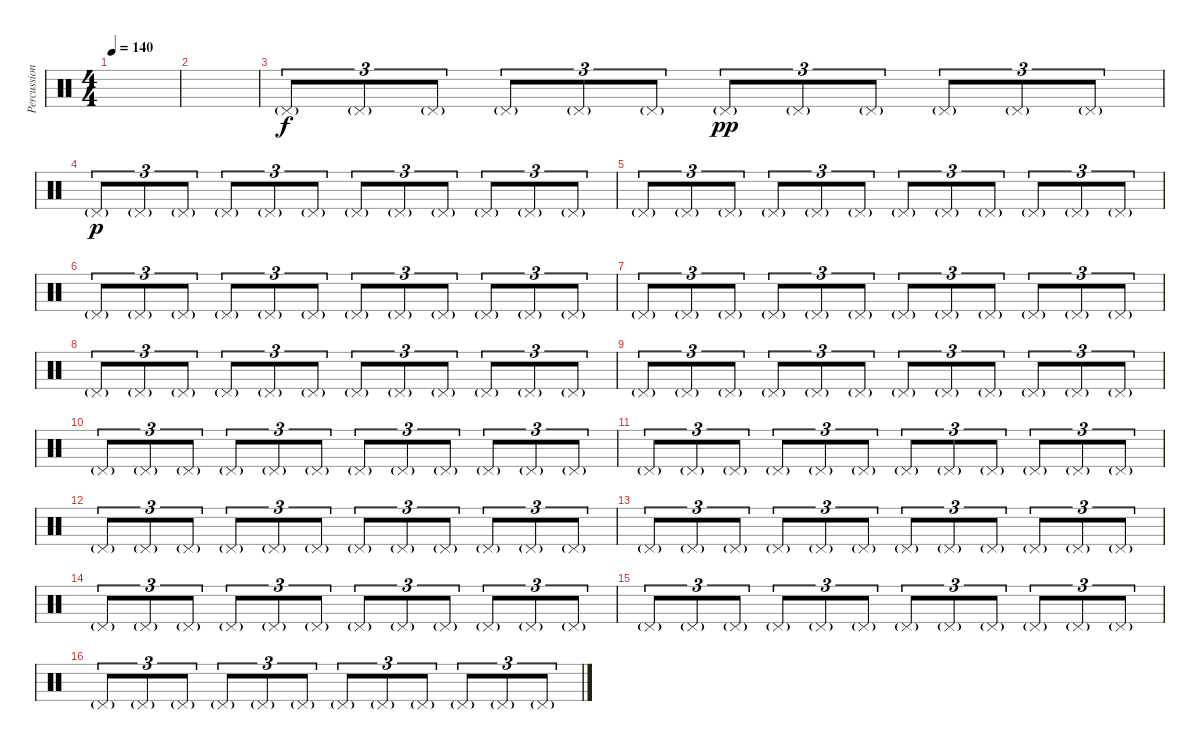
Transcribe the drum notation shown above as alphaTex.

\track ("Percussion" "Percussion") {instrument percussion}
\staff {score}
\articulation defaults
\ts (4 4)
\tempo 140
\clef neutral
\ks c
|
|
"Pedal Hi-Hat (hit)"{g}.8{tu (3 2)} "Pedal Hi-Hat (hit)"{g}.8{tu (3 2)} "Pedal Hi-Hat (hit)"{g}.8{tu (3 2)} "Pedal Hi-Hat (hit)"{g}.8{tu (3 2)} "Pedal Hi-Hat (hit)"{g}.8{tu (3 2)} "Pedal Hi-Hat (hit)"{g}.8{tu (3 2)} "Pedal Hi-Hat (hit)"{g}.8{tu (3 2) dy pp} "Pedal Hi-Hat (hit)"{g}.8{tu (3 2)} "Pedal Hi-Hat (hit)"{g}.8{tu (3 2)} "Pedal Hi-Hat (hit)"{g}.8{tu (3 2)} "Pedal Hi-Hat (hit)"{g}.8{tu (3 2)} "Pedal Hi-Hat (hit)"{g}.8{tu (3 2)} |
"Pedal Hi-Hat (hit)"{g}.8{tu (3 2) dy p} "Pedal Hi-Hat (hit)"{g}.8{tu (3 2)} "Pedal Hi-Hat (hit)"{g}.8{tu (3 2)} "Pedal Hi-Hat (hit)"{g}.8{tu (3 2)} "Pedal Hi-Hat (hit)"{g}.8{tu (3 2)} "Pedal Hi-Hat (hit)"{g}.8{tu (3 2)} "Pedal Hi-Hat (hit)"{g}.8{tu (3 2)} "Pedal Hi-Hat (hit)"{g}.8{tu (3 2)} "Pedal Hi-Hat (hit)"{g}.8{tu (3 2)} "Pedal Hi-Hat (hit)"{g}.8{tu (3 2)} "Pedal Hi-Hat (hit)"{g}.8{tu (3 2)} "Pedal Hi-Hat (hit)"{g}.8{tu (3 2)} |
"Pedal Hi-Hat (hit)"{g}.8{tu (3 2)} "Pedal Hi-Hat (hit)"{g}.8{tu (3 2)} "Pedal Hi-Hat (hit)"{g}.8{tu (3 2)} "Pedal Hi-Hat (hit)"{g}.8{tu (3 2)} "Pedal Hi-Hat (hit)"{g}.8{tu (3 2)} "Pedal Hi-Hat (hit)"{g}.8{tu (3 2)} "Pedal Hi-Hat (hit)"{g}.8{tu (3 2)} "Pedal Hi-Hat (hit)"{g}.8{tu (3 2)} "Pedal Hi-Hat (hit)"{g}.8{tu (3 2)} "Pedal Hi-Hat (hit)"{g}.8{tu (3 2)} "Pedal Hi-Hat (hit)"{g}.8{tu (3 2)} "Pedal Hi-Hat (hit)"{g}.8{tu (3 2)} |
"Pedal Hi-Hat (hit)"{g}.8{tu (3 2)} "Pedal Hi-Hat (hit)"{g}.8{tu (3 2)} "Pedal Hi-Hat (hit)"{g}.8{tu (3 2)} "Pedal Hi-Hat (hit)"{g}.8{tu (3 2)} "Pedal Hi-Hat (hit)"{g}.8{tu (3 2)} "Pedal Hi-Hat (hit)"{g}.8{tu (3 2)} "Pedal Hi-Hat (hit)"{g}.8{tu (3 2)} "Pedal Hi-Hat (hit)"{g}.8{tu (3 2)} "Pedal Hi-Hat (hit)"{g}.8{tu (3 2)} "Pedal Hi-Hat (hit)"{g}.8{tu (3 2)} "Pedal Hi-Hat (hit)"{g}.8{tu (3 2)} "Pedal Hi-Hat (hit)"{g}.8{tu (3 2)} |
"Pedal Hi-Hat (hit)"{g}.8{tu (3 2)} "Pedal Hi-Hat (hit)"{g}.8{tu (3 2)} "Pedal Hi-Hat (hit)"{g}.8{tu (3 2)} "Pedal Hi-Hat (hit)"{g}.8{tu (3 2)} "Pedal Hi-Hat (hit)"{g}.8{tu (3 2)} "Pedal Hi-Hat (hit)"{g}.8{tu (3 2)} "Pedal Hi-Hat (hit)"{g}.8{tu (3 2)} "Pedal Hi-Hat (hit)"{g}.8{tu (3 2)} "Pedal Hi-Hat (hit)"{g}.8{tu (3 2)} "Pedal Hi-Hat (hit)"{g}.8{tu (3 2)} "Pedal Hi-Hat (hit)"{g}.8{tu (3 2)} "Pedal Hi-Hat (hit)"{g}.8{tu (3 2)} |
"Pedal Hi-Hat (hit)"{g}.8{tu (3 2)} "Pedal Hi-Hat (hit)"{g}.8{tu (3 2)} "Pedal Hi-Hat (hit)"{g}.8{tu (3 2)} "Pedal Hi-Hat (hit)"{g}.8{tu (3 2)} "Pedal Hi-Hat (hit)"{g}.8{tu (3 2)} "Pedal Hi-Hat (hit)"{g}.8{tu (3 2)} "Pedal Hi-Hat (hit)"{g}.8{tu (3 2)} "Pedal Hi-Hat (hit)"{g}.8{tu (3 2)} "Pedal Hi-Hat (hit)"{g}.8{tu (3 2)} "Pedal Hi-Hat (hit)"{g}.8{tu (3 2)} "Pedal Hi-Hat (hit)"{g}.8{tu (3 2)} "Pedal Hi-Hat (hit)"{g}.8{tu (3 2)} |
"Pedal Hi-Hat (hit)"{g}.8{tu (3 2)} "Pedal Hi-Hat (hit)"{g}.8{tu (3 2)} "Pedal Hi-Hat (hit)"{g}.8{tu (3 2)} "Pedal Hi-Hat (hit)"{g}.8{tu (3 2)} "Pedal Hi-Hat (hit)"{g}.8{tu (3 2)} "Pedal Hi-Hat (hit)"{g}.8{tu (3 2)} "Pedal Hi-Hat (hit)"{g}.8{tu (3 2)} "Pedal Hi-Hat (hit)"{g}.8{tu (3 2)} "Pedal Hi-Hat (hit)"{g}.8{tu (3 2)} "Pedal Hi-Hat (hit)"{g}.8{tu (3 2)} "Pedal Hi-Hat (hit)"{g}.8{tu (3 2)} "Pedal Hi-Hat (hit)"{g}.8{tu (3 2)} |
"Pedal Hi-Hat (hit)"{g}.8{tu (3 2)} "Pedal Hi-Hat (hit)"{g}.8{tu (3 2)} "Pedal Hi-Hat (hit)"{g}.8{tu (3 2)} "Pedal Hi-Hat (hit)"{g}.8{tu (3 2)} "Pedal Hi-Hat (hit)"{g}.8{tu (3 2)} "Pedal Hi-Hat (hit)"{g}.8{tu (3 2)} "Pedal Hi-Hat (hit)"{g}.8{tu (3 2)} "Pedal Hi-Hat (hit)"{g}.8{tu (3 2)} "Pedal Hi-Hat (hit)"{g}.8{tu (3 2)} "Pedal Hi-Hat (hit)"{g}.8{tu (3 2)} "Pedal Hi-Hat (hit)"{g}.8{tu (3 2)} "Pedal Hi-Hat (hit)"{g}.8{tu (3 2)} |
"Pedal Hi-Hat (hit)"{g}.8{tu (3 2)} "Pedal Hi-Hat (hit)"{g}.8{tu (3 2)} "Pedal Hi-Hat (hit)"{g}.8{tu (3 2)} "Pedal Hi-Hat (hit)"{g}.8{tu (3 2)} "Pedal Hi-Hat (hit)"{g}.8{tu (3 2)} "Pedal Hi-Hat (hit)"{g}.8{tu (3 2)} "Pedal Hi-Hat (hit)"{g}.8{tu (3 2)} "Pedal Hi-Hat (hit)"{g}.8{tu (3 2)} "Pedal Hi-Hat (hit)"{g}.8{tu (3 2)} "Pedal Hi-Hat (hit)"{g}.8{tu (3 2)} "Pedal Hi-Hat (hit)"{g}.8{tu (3 2)} "Pedal Hi-Hat (hit)"{g}.8{tu (3 2)} |
"Pedal Hi-Hat (hit)"{g}.8{tu (3 2)} "Pedal Hi-Hat (hit)"{g}.8{tu (3 2)} "Pedal Hi-Hat (hit)"{g}.8{tu (3 2)} "Pedal Hi-Hat (hit)"{g}.8{tu (3 2)} "Pedal Hi-Hat (hit)"{g}.8{tu (3 2)} "Pedal Hi-Hat (hit)"{g}.8{tu (3 2)} "Pedal Hi-Hat (hit)"{g}.8{tu (3 2)} "Pedal Hi-Hat (hit)"{g}.8{tu (3 2)} "Pedal Hi-Hat (hit)"{g}.8{tu (3 2)} "Pedal Hi-Hat (hit)"{g}.8{tu (3 2)} "Pedal Hi-Hat (hit)"{g}.8{tu (3 2)} "Pedal Hi-Hat (hit)"{g}.8{tu (3 2)} |
"Pedal Hi-Hat (hit)"{g}.8{tu (3 2)} "Pedal Hi-Hat (hit)"{g}.8{tu (3 2)} "Pedal Hi-Hat (hit)"{g}.8{tu (3 2)} "Pedal Hi-Hat (hit)"{g}.8{tu (3 2)} "Pedal Hi-Hat (hit)"{g}.8{tu (3 2)} "Pedal Hi-Hat (hit)"{g}.8{tu (3 2)} "Pedal Hi-Hat (hit)"{g}.8{tu (3 2)} "Pedal Hi-Hat (hit)"{g}.8{tu (3 2)} "Pedal Hi-Hat (hit)"{g}.8{tu (3 2)} "Pedal Hi-Hat (hit)"{g}.8{tu (3 2)} "Pedal Hi-Hat (hit)"{g}.8{tu (3 2)} "Pedal Hi-Hat (hit)"{g}.8{tu (3 2)} |
"Pedal Hi-Hat (hit)"{g}.8{tu (3 2)} "Pedal Hi-Hat (hit)"{g}.8{tu (3 2)} "Pedal Hi-Hat (hit)"{g}.8{tu (3 2)} "Pedal Hi-Hat (hit)"{g}.8{tu (3 2)} "Pedal Hi-Hat (hit)"{g}.8{tu (3 2)} "Pedal Hi-Hat (hit)"{g}.8{tu (3 2)} "Pedal Hi-Hat (hit)"{g}.8{tu (3 2)} "Pedal Hi-Hat (hit)"{g}.8{tu (3 2)} "Pedal Hi-Hat (hit)"{g}.8{tu (3 2)} "Pedal Hi-Hat (hit)"{g}.8{tu (3 2)} "Pedal Hi-Hat (hit)"{g}.8{tu (3 2)} "Pedal Hi-Hat (hit)"{g}.8{tu (3 2)} |
"Pedal Hi-Hat (hit)"{g}.8{tu (3 2)} "Pedal Hi-Hat (hit)"{g}.8{tu (3 2)} "Pedal Hi-Hat (hit)"{g}.8{tu (3 2)} "Pedal Hi-Hat (hit)"{g}.8{tu (3 2)} "Pedal Hi-Hat (hit)"{g}.8{tu (3 2)} "Pedal Hi-Hat (hit)"{g}.8{tu (3 2)} "Pedal Hi-Hat (hit)"{g}.8{tu (3 2)} "Pedal Hi-Hat (hit)"{g}.8{tu (3 2)} "Pedal Hi-Hat (hit)"{g}.8{tu (3 2)} "Pedal Hi-Hat (hit)"{g}.8{tu (3 2)} "Pedal Hi-Hat (hit)"{g}.8{tu (3 2)} "Pedal Hi-Hat (hit)"{g}.8{tu (3 2)} |
"Pedal Hi-Hat (hit)"{g}.8{tu (3 2)} "Pedal Hi-Hat (hit)"{g}.8{tu (3 2)} "Pedal Hi-Hat (hit)"{g}.8{tu (3 2)} "Pedal Hi-Hat (hit)"{g}.8{tu (3 2)} "Pedal Hi-Hat (hit)"{g}.8{tu (3 2)} "Pedal Hi-Hat (hit)"{g}.8{tu (3 2)} "Pedal Hi-Hat (hit)"{g}.8{tu (3 2)} "Pedal Hi-Hat (hit)"{g}.8{tu (3 2)} "Pedal Hi-Hat (hit)"{g}.8{tu (3 2)} "Pedal Hi-Hat (hit)"{g}.8{tu (3 2)} "Pedal Hi-Hat (hit)"{g}.8{tu (3 2)} "Pedal Hi-Hat (hit)"{g}.8{tu (3 2)}
